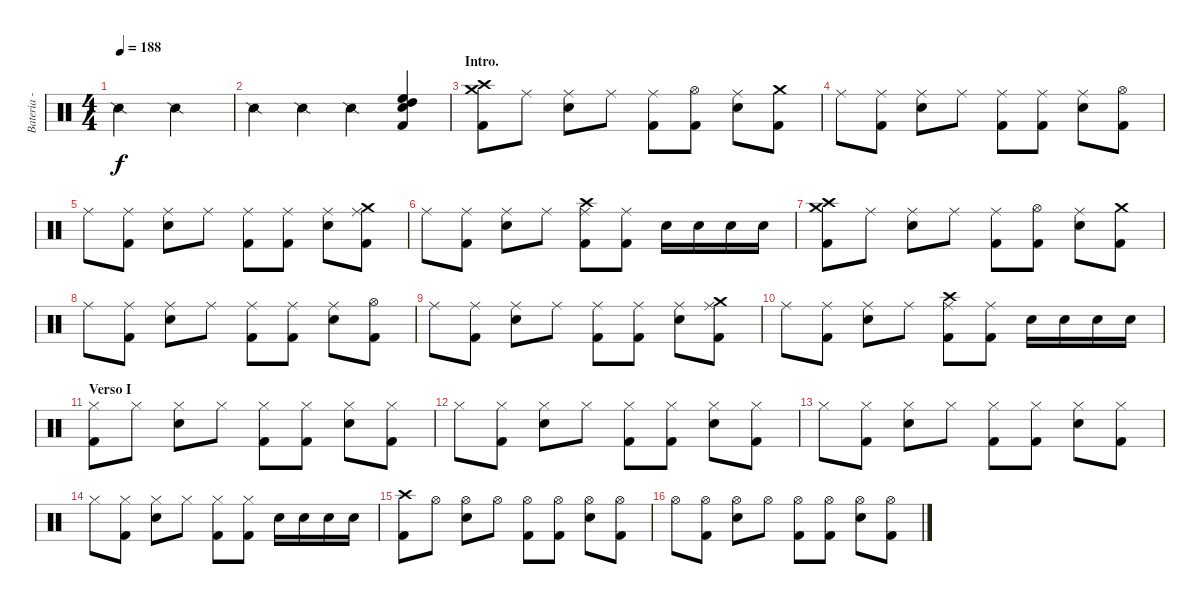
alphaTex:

\track ("Bateria - Larzon" "Bateria - ") {instrument percussion}
\staff {score}
\articulation defaults
\ts (4 4)
\tempo 188
\clef neutral
\ks c "Snare (side stick) 2".2{dy f} "Snare (side stick) 2".2
|
"Snare (side stick) 2".4 "Snare (side stick) 2".4 "Snare (side stick) 2".4 ("Kick (hit) 2" "Electric Snare (hit)" "High Floor Tom (hit)" "High Tom (hit)").4 |
\section ("" "Intro.")
("Kick (hit) 2" "Crash medium (hit)" "Crash high (hit)").8 "Ride (middle)".8 ("Snare (hit) 2" "Ride (middle)").8 "Ride (middle)".8 ("Kick (hit) 2" "Ride (middle)").8 ("Kick (hit) 2" "Hi-Hat (open)").8 ("Snare (hit) 2" "Ride (middle)").8 ("Kick (hit) 2" "Crash medium (hit)").8 |
"Ride (middle)".8 ("Kick (hit) 2" "Ride (middle)").8 ("Snare (hit) 2" "Ride (middle)").8 "Ride (middle)".8 ("Kick (hit) 2" "Ride (middle)").8 ("Kick (hit) 2" "Ride (middle)").8 ("Snare (hit) 2" "Ride (middle)").8 ("Kick (hit) 2" "Hi-Hat (open)").8 |
"Ride (middle)".8 ("Kick (hit) 2" "Ride (middle)").8 ("Snare (hit) 2" "Ride (middle)").8 "Ride (middle)".8 ("Kick (hit) 2" "Ride (middle)").8 ("Kick (hit) 2" "Ride (middle)").8 ("Snare (hit) 2" "Ride (middle)").8 ("Kick (hit) 2" "Ride (middle)" "Crash medium (hit)").8 |
"Ride (middle)".8 ("Kick (hit) 2" "Ride (middle)").8 ("Snare (hit) 2" "Ride (middle)").8 "Ride (middle)".8 ("Kick (hit) 2" "Ride (middle)" "Crash high (hit)").8 ("Kick (hit) 2" "Ride (middle)").8 "Snare (hit) 2".16 "Snare (hit) 2".16 "Snare (hit) 2".16 "Snare (hit) 2".16 |
("Kick (hit) 2" "Crash medium (hit)" "Crash high (hit)").8 "Ride (middle)".8 ("Snare (hit) 2" "Ride (middle)").8 "Ride (middle)".8 ("Kick (hit) 2" "Ride (middle)").8 ("Kick (hit) 2" "Hi-Hat (open)").8 ("Snare (hit) 2" "Ride (middle)").8 ("Kick (hit) 2" "Crash medium (hit)").8 |
"Ride (middle)".8 ("Kick (hit) 2" "Ride (middle)").8 ("Snare (hit) 2" "Ride (middle)").8 "Ride (middle)".8 ("Kick (hit) 2" "Ride (middle)").8 ("Kick (hit) 2" "Ride (middle)").8 ("Snare (hit) 2" "Ride (middle)").8 ("Kick (hit) 2" "Hi-Hat (open)").8 |
"Ride (middle)".8 ("Kick (hit) 2" "Ride (middle)").8 ("Snare (hit) 2" "Ride (middle)").8 "Ride (middle)".8 ("Kick (hit) 2" "Ride (middle)").8 ("Kick (hit) 2" "Ride (middle)").8 ("Snare (hit) 2" "Ride (middle)").8 ("Kick (hit) 2" "Ride (middle)" "Crash medium (hit)").8 |
"Ride (middle)".8 ("Kick (hit) 2" "Ride (middle)").8 ("Snare (hit) 2" "Ride (middle)").8 "Ride (middle)".8 ("Kick (hit) 2" "Ride (middle)" "Crash high (hit)").8 ("Kick (hit) 2" "Ride (middle)").8 "Snare (hit) 2".16 "Snare (hit) 2".16 "Snare (hit) 2".16 "Snare (hit) 2".16 |
\section ("" "Verso I")
("Kick (hit) 2" "Hi-Hat (closed)").8 "Hi-Hat (closed)".8 ("Snare (hit) 2" "Hi-Hat (closed)").8 "Hi-Hat (closed)".8 ("Kick (hit) 2" "Hi-Hat (closed)").8 ("Kick (hit) 2" "Hi-Hat (closed)").8 ("Snare (hit) 2" "Hi-Hat (closed)").8 ("Kick (hit) 2" "Hi-Hat (closed)").8 |
"Hi-Hat (closed)".8 ("Kick (hit) 2" "Hi-Hat (closed)").8 ("Snare (hit) 2" "Hi-Hat (closed)").8 "Hi-Hat (closed)".8 ("Kick (hit) 2" "Hi-Hat (closed)").8 ("Kick (hit) 2" "Hi-Hat (closed)").8 ("Snare (hit) 2" "Hi-Hat (closed)").8 ("Kick (hit) 2" "Hi-Hat (closed)").8 |
"Hi-Hat (closed)".8 ("Kick (hit) 2" "Hi-Hat (closed)").8 ("Snare (hit) 2" "Hi-Hat (closed)").8 "Hi-Hat (closed)".8 ("Kick (hit) 2" "Hi-Hat (closed)").8 ("Kick (hit) 2" "Hi-Hat (closed)").8 ("Snare (hit) 2" "Hi-Hat (closed)").8 ("Kick (hit) 2" "Hi-Hat (closed)").8 |
"Hi-Hat (closed)".8 ("Kick (hit) 2" "Hi-Hat (closed)").8 ("Snare (hit) 2" "Hi-Hat (closed)").8 "Hi-Hat (closed)".8 ("Kick (hit) 2" "Hi-Hat (closed)").8 ("Kick (hit) 2" "Hi-Hat (closed)").8 "Snare (hit) 2".16 "Snare (hit) 2".16 "Snare (hit) 2".16 "Snare (hit) 2".16 |
("Kick (hit) 2" "Crash high (hit)").8 "Hi-Hat (open)".8 ("Snare (hit) 2" "Hi-Hat (open)").8 "Hi-Hat (open)".8 ("Kick (hit) 2" "Hi-Hat (open)").8 ("Kick (hit) 2" "Hi-Hat (open)").8 ("Snare (hit) 2" "Hi-Hat (open)").8 ("Kick (hit) 2" "Hi-Hat (open)").8 |
"Hi-Hat (open)".8 ("Kick (hit) 2" "Hi-Hat (open)").8 ("Snare (hit) 2" "Hi-Hat (open)").8 "Hi-Hat (open)".8 ("Kick (hit) 2" "Hi-Hat (open)").8 ("Kick (hit) 2" "Hi-Hat (open)").8 ("Snare (hit) 2" "Hi-Hat (open)").8 ("Kick (hit) 2" "Hi-Hat (open)").8
